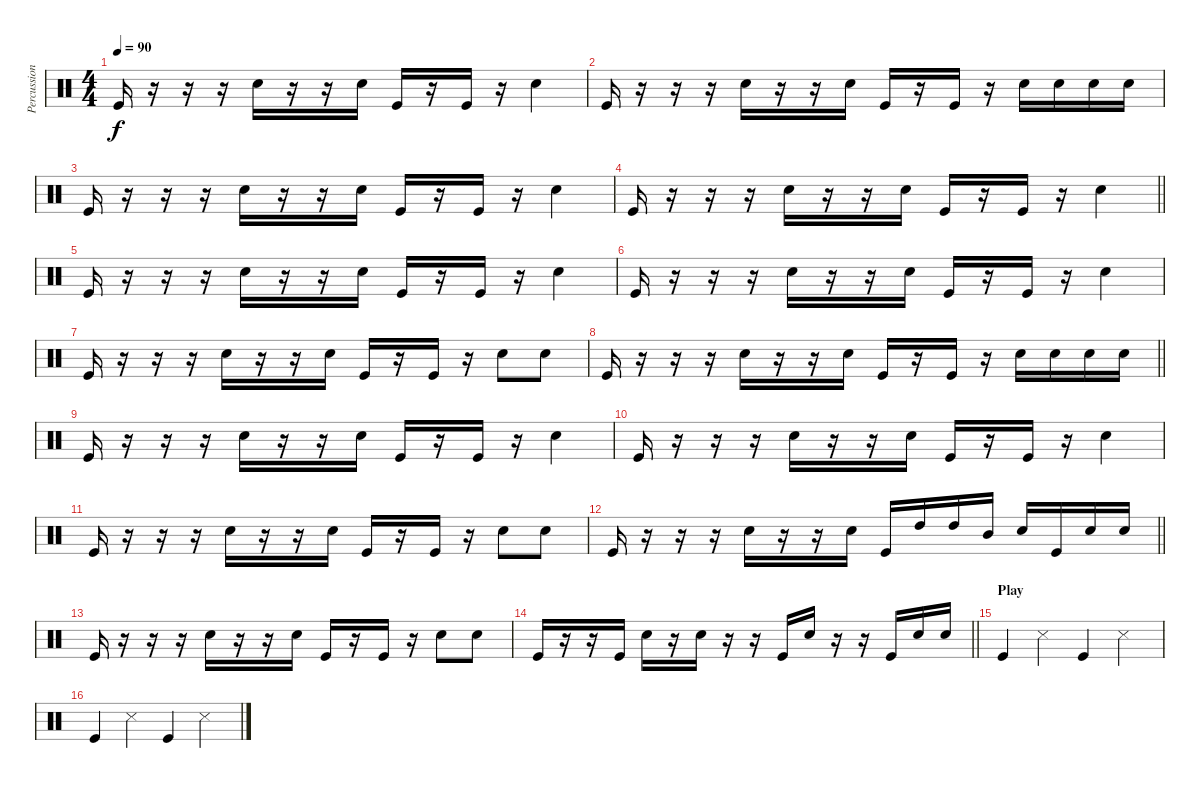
\track ("Percussion" "Percussion") {instrument percussion}
\staff
\articulation defaults
\ts (4 4)
\tempo 90
\clef neutral
\ks c "Kick (hit)".16{dy f}
r.16 r.16 r.16 "Electric Snare (hit)".16 r.16 r.16 "Electric Snare (hit)".16 "Kick (hit)".16 r.16 "Kick (hit)".16 r.16 "Electric Snare (hit)".4 |
"Kick (hit)".16 r.16 r.16 r.16 "Electric Snare (hit)".16 r.16 r.16 "Electric Snare (hit)".16 "Kick (hit)".16 r.16 "Kick (hit)".16 r.16 "Electric Snare (hit)".16 "Electric Snare (hit)".16 "Electric Snare (hit)".16 "Electric Snare (hit)".16 |
"Kick (hit)".16 r.16 r.16 r.16 "Electric Snare (hit)".16 r.16 r.16 "Electric Snare (hit)".16 "Kick (hit)".16 r.16 "Kick (hit)".16 r.16 "Electric Snare (hit)".4 |
\barLineRight lightlight "Kick (hit)".16
r.16 r.16 r.16 "Electric Snare (hit)".16 r.16 r.16 "Electric Snare (hit)".16 "Kick (hit)".16 r.16 "Kick (hit)".16 r.16 "Electric Snare (hit)".4 |
"Kick (hit)".16 r.16 r.16 r.16 "Electric Snare (hit)".16 r.16 r.16 "Electric Snare (hit)".16 "Kick (hit)".16 r.16 "Kick (hit)".16 r.16 "Electric Snare (hit)".4 |
"Kick (hit)".16 r.16 r.16 r.16 "Electric Snare (hit)".16 r.16 r.16 "Electric Snare (hit)".16 "Kick (hit)".16 r.16 "Kick (hit)".16 r.16 "Electric Snare (hit)".4 |
"Kick (hit)".16 r.16 r.16 r.16 "Electric Snare (hit)".16 r.16 r.16 "Electric Snare (hit)".16 "Kick (hit)".16 r.16 "Kick (hit)".16 r.16 "Electric Snare (hit)".8 "Electric Snare (hit)".8 |
\barLineRight lightlight "Kick (hit)".16
r.16 r.16 r.16 "Electric Snare (hit)".16 r.16 r.16 "Electric Snare (hit)".16 "Kick (hit)".16 r.16 "Kick (hit)".16 r.16 "Electric Snare (hit)".16 "Electric Snare (hit)".16 "Electric Snare (hit)".16 "Electric Snare (hit)".16 |
"Kick (hit)".16 r.16 r.16 r.16 "Electric Snare (hit)".16 r.16 r.16 "Electric Snare (hit)".16 "Kick (hit)".16 r.16 "Kick (hit)".16 r.16 "Electric Snare (hit)".4 |
"Kick (hit)".16 r.16 r.16 r.16 "Electric Snare (hit)".16 r.16 r.16 "Electric Snare (hit)".16 "Kick (hit)".16 r.16 "Kick (hit)".16 r.16 "Electric Snare (hit)".4 |
"Kick (hit)".16 r.16 r.16 r.16 "Electric Snare (hit)".16 r.16 r.16 "Electric Snare (hit)".16 "Kick (hit)".16 r.16 "Kick (hit)".16 r.16 "Electric Snare (hit)".8 "Electric Snare (hit)".8 |
\barLineRight lightlight "Kick (hit)".16
r.16 r.16 r.16 "Electric Snare (hit)".16 r.16 r.16 "Electric Snare (hit)".16 "Kick (hit)".16 "High Tom (hit)".16 "High Tom (hit)".16 "Mid Tom (hit)".16 "Electric Snare (hit)".16 "Kick (hit)".16 "Electric Snare (hit)".16 "Electric Snare (hit)".16 |
"Kick (hit)".16 r.16 r.16 r.16 "Electric Snare (hit)".16 r.16 r.16 "Electric Snare (hit)".16 "Kick (hit)".16 r.16 "Kick (hit)".16 r.16 "Electric Snare (hit)".8 "Electric Snare (hit)".8 |
\barLineRight lightlight "Kick (hit)".16
r.16 r.16 "Kick (hit)".16 "Electric Snare (hit)".16 r.16 "Electric Snare (hit)".16 r.16 r.16 "Kick (hit)".16 "Electric Snare (hit)".16 r.16 r.16 "Kick (hit)".16 "Electric Snare (hit)".16 "Electric Snare (hit)".16 |
\section ("" "Play")
"Kick (hit)".4 "Snare (side stick) 3".4 "Kick (hit)".4 "Snare (side stick) 3".4 |
"Kick (hit)".4 "Snare (side stick) 3".4 "Kick (hit)".4 "Snare (side stick) 3".4
